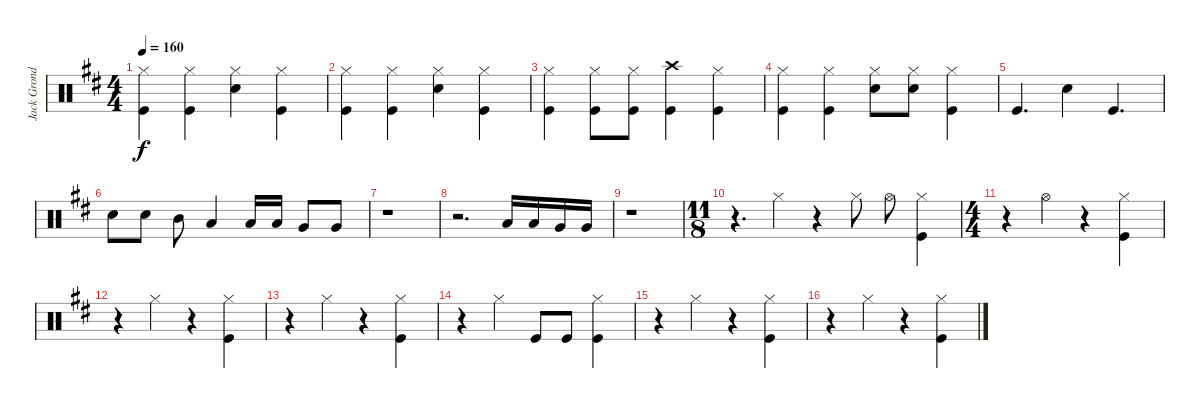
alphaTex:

\track ("Jack Grondin Drums" "Jack Grond") {instrument percussion}
\staff {score}
\articulation defaults
\ts (4 4)
\tempo 160
\clef neutral
\ks d
("Hi-Hat (closed)" "Kick (hit)").4{dy f} ("Hi-Hat (closed)" "Kick (hit)").4 ("Hi-Hat (closed)" "Snare (hit) 2").4 ("Hi-Hat (closed)" "Kick (hit)").4 |
("Hi-Hat (closed)" "Kick (hit)").4 ("Hi-Hat (closed)" "Kick (hit)").4 ("Hi-Hat (closed)" "Snare (hit) 2").4 ("Hi-Hat (closed)" "Kick (hit)").4 |
("Hi-Hat (closed)" "Kick (hit)").4 ("Hi-Hat (closed)" "Kick (hit)").8 ("Hi-Hat (closed)" "Kick (hit)").8 ("Crash high (hit)" "Kick (hit)").4 ("Hi-Hat (closed)" "Kick (hit)").4 |
("Hi-Hat (closed)" "Kick (hit)").4 ("Hi-Hat (closed)" "Kick (hit)").4 ("Hi-Hat (closed)" "Snare (hit) 2").8 ("Hi-Hat (closed)" "Snare (hit) 2").8 ("Hi-Hat (closed)" "Kick (hit)").4 |
"Kick (hit)".4{d} "Snare (hit) 2".4 "Kick (hit)".4{d} |
"Snare (hit) 2".8 "Snare (hit) 2".8 "Mid Tom (hit)".8 "Low Tom (hit)".4 "Low Tom (hit)".16 "Low Tom (hit)".16 "Very Low Tom (hit)".8 "Very Low Tom (hit)".8 |
r.1 |
r.2{d} "Low Tom (hit)".16 "Low Tom (hit)".16 "Very Low Tom (hit)".16 "Very Low Tom (hit)".16 |
r.1 |
\ts (11 8)
r.4{d} "Hi-Hat (closed)".4 r.4 "Hi-Hat (closed)".8 "Hi-Hat (open)".8 ("Hi-Hat (closed)" "Kick (hit)").4 |
\ts (4 4)
r.4 "Hi-Hat (open)".4 r.4 ("Hi-Hat (closed)" "Kick (hit)").4 |
r.4 "Hi-Hat (closed)".4 r.4 ("Hi-Hat (closed)" "Kick (hit)").4 |
r.4 "Hi-Hat (closed)".4 r.4 ("Hi-Hat (closed)" "Kick (hit)").4 |
r.4 "Hi-Hat (closed)".4 "Kick (hit)".8 "Kick (hit)".8 ("Hi-Hat (closed)" "Kick (hit)").4 |
r.4 "Hi-Hat (closed)".4 r.4 ("Hi-Hat (closed)" "Kick (hit)").4 |
r.4 "Hi-Hat (closed)".4 r.4 ("Hi-Hat (closed)" "Kick (hit)").4
